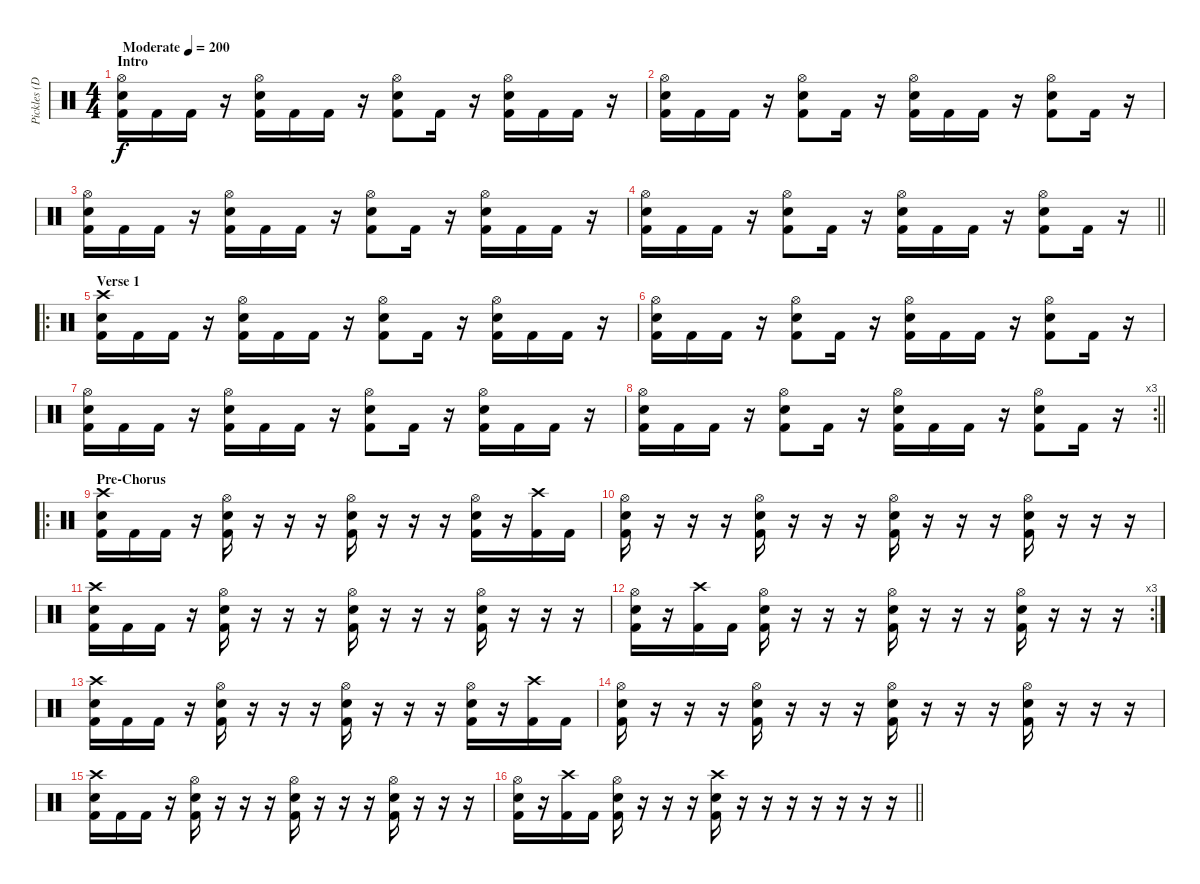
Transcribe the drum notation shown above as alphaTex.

\track ("Pickles (Drums)" "Pickles (D") {instrument percussion}
\staff {score}
\articulation defaults
\ts (4 4)
\section ("" "Intro")
\tempo (200 "Moderate")
\clef neutral
\ks c
("Hi-Hat (open)" "Electric Snare (hit)" "Kick (hit) 2").16{dy f} "Kick (hit) 2".16 "Kick (hit) 2".16 r.16 ("Hi-Hat (open)" "Electric Snare (hit)" "Kick (hit) 2").16 "Kick (hit) 2".16 "Kick (hit) 2".16 r.16 ("Hi-Hat (open)" "Electric Snare (hit)" "Kick (hit) 2").8 "Kick (hit) 2".16 r.16 ("Hi-Hat (open)" "Electric Snare (hit)" "Kick (hit) 2").16 "Kick (hit) 2".16 "Kick (hit) 2".16 r.16 |
("Hi-Hat (open)" "Electric Snare (hit)" "Kick (hit) 2").16 "Kick (hit) 2".16 "Kick (hit) 2".16 r.16 ("Hi-Hat (open)" "Electric Snare (hit)" "Kick (hit) 2").8 "Kick (hit) 2".16 r.16 ("Hi-Hat (open)" "Electric Snare (hit)" "Kick (hit) 2").16 "Kick (hit) 2".16 "Kick (hit) 2".16 r.16 ("Hi-Hat (open)" "Electric Snare (hit)" "Kick (hit) 2").8 "Kick (hit) 2".16 r.16 |
("Hi-Hat (open)" "Electric Snare (hit)" "Kick (hit) 2").16 "Kick (hit) 2".16 "Kick (hit) 2".16 r.16 ("Hi-Hat (open)" "Electric Snare (hit)" "Kick (hit) 2").16 "Kick (hit) 2".16 "Kick (hit) 2".16 r.16 ("Hi-Hat (open)" "Electric Snare (hit)" "Kick (hit) 2").8 "Kick (hit) 2".16 r.16 ("Hi-Hat (open)" "Electric Snare (hit)" "Kick (hit) 2").16 "Kick (hit) 2".16 "Kick (hit) 2".16 r.16 |
\barLineRight lightlight
("Hi-Hat (open)" "Electric Snare (hit)" "Kick (hit) 2").16 "Kick (hit) 2".16 "Kick (hit) 2".16 r.16 ("Hi-Hat (open)" "Electric Snare (hit)" "Kick (hit) 2").8 "Kick (hit) 2".16 r.16 ("Hi-Hat (open)" "Electric Snare (hit)" "Kick (hit) 2").16 "Kick (hit) 2".16 "Kick (hit) 2".16 r.16 ("Hi-Hat (open)" "Electric Snare (hit)" "Kick (hit) 2").8 "Kick (hit) 2".16 r.16 |
\ro
\section ("" "Verse 1")
("Crash high (hit)" "Electric Snare (hit)" "Kick (hit) 2").16 "Kick (hit) 2".16 "Kick (hit) 2".16 r.16 ("Hi-Hat (open)" "Electric Snare (hit)" "Kick (hit) 2").16 "Kick (hit) 2".16 "Kick (hit) 2".16 r.16 ("Hi-Hat (open)" "Electric Snare (hit)" "Kick (hit) 2").8 "Kick (hit) 2".16 r.16 ("Hi-Hat (open)" "Electric Snare (hit)" "Kick (hit) 2").16 "Kick (hit) 2".16 "Kick (hit) 2".16 r.16 |
("Hi-Hat (open)" "Electric Snare (hit)" "Kick (hit) 2").16 "Kick (hit) 2".16 "Kick (hit) 2".16 r.16 ("Hi-Hat (open)" "Electric Snare (hit)" "Kick (hit) 2").8 "Kick (hit) 2".16 r.16 ("Hi-Hat (open)" "Electric Snare (hit)" "Kick (hit) 2").16 "Kick (hit) 2".16 "Kick (hit) 2".16 r.16 ("Hi-Hat (open)" "Electric Snare (hit)" "Kick (hit) 2").8 "Kick (hit) 2".16 r.16 |
("Hi-Hat (open)" "Electric Snare (hit)" "Kick (hit) 2").16 "Kick (hit) 2".16 "Kick (hit) 2".16 r.16 ("Hi-Hat (open)" "Electric Snare (hit)" "Kick (hit) 2").16 "Kick (hit) 2".16 "Kick (hit) 2".16 r.16 ("Hi-Hat (open)" "Electric Snare (hit)" "Kick (hit) 2").8 "Kick (hit) 2".16 r.16 ("Hi-Hat (open)" "Electric Snare (hit)" "Kick (hit) 2").16 "Kick (hit) 2".16 "Kick (hit) 2".16 r.16 |
\rc 3
\barLineRight lightlight
("Hi-Hat (open)" "Electric Snare (hit)" "Kick (hit) 2").16 "Kick (hit) 2".16 "Kick (hit) 2".16 r.16 ("Hi-Hat (open)" "Electric Snare (hit)" "Kick (hit) 2").8 "Kick (hit) 2".16 r.16 ("Hi-Hat (open)" "Electric Snare (hit)" "Kick (hit) 2").16 "Kick (hit) 2".16 "Kick (hit) 2".16 r.16 ("Hi-Hat (open)" "Electric Snare (hit)" "Kick (hit) 2").8 "Kick (hit) 2".16 r.16 |
\ro
\section ("" "Pre-Chorus")
("Crash high (hit)" "Electric Snare (hit)" "Kick (hit) 2").16 "Kick (hit) 2".16 "Kick (hit) 2".16 r.16 ("Hi-Hat (open)" "Electric Snare (hit)" "Kick (hit) 2").16 r.16 r.16 r.16 ("Hi-Hat (open)" "Electric Snare (hit)" "Kick (hit) 2").16 r.16 r.16 r.16 ("Hi-Hat (open)" "Electric Snare (hit)" "Kick (hit) 2").16 r.16 ("Crash high (hit)" "Kick (hit) 2").16 "Kick (hit) 2".16 |
("Hi-Hat (open)" "Electric Snare (hit)" "Kick (hit) 2").16 r.16 r.16 r.16 ("Hi-Hat (open)" "Electric Snare (hit)" "Kick (hit) 2").16 r.16 r.16 r.16 ("Hi-Hat (open)" "Electric Snare (hit)" "Kick (hit) 2").16 r.16 r.16 r.16 ("Hi-Hat (open)" "Electric Snare (hit)" "Kick (hit) 2").16 r.16 r.16 r.16 |
("Crash high (hit)" "Electric Snare (hit)" "Kick (hit) 2").16 "Kick (hit) 2".16 "Kick (hit) 2".16 r.16 ("Hi-Hat (open)" "Electric Snare (hit)" "Kick (hit) 2").16 r.16 r.16 r.16 ("Hi-Hat (open)" "Electric Snare (hit)" "Kick (hit) 2").16 r.16 r.16 r.16 ("Hi-Hat (open)" "Electric Snare (hit)" "Kick (hit) 2").16 r.16 r.16 r.16 |
\rc 3
("Hi-Hat (open)" "Electric Snare (hit)" "Kick (hit) 2").16 r.16 ("Crash high (hit)" "Kick (hit) 2").16 "Kick (hit) 2".16 ("Hi-Hat (open)" "Electric Snare (hit)" "Kick (hit) 2").16 r.16 r.16 r.16 ("Hi-Hat (open)" "Electric Snare (hit)" "Kick (hit) 2").16 r.16 r.16 r.16 ("Hi-Hat (open)" "Electric Snare (hit)" "Kick (hit) 2").16 r.16 r.16 r.16 |
("Crash high (hit)" "Electric Snare (hit)" "Kick (hit) 2").16 "Kick (hit) 2".16 "Kick (hit) 2".16 r.16 ("Hi-Hat (open)" "Electric Snare (hit)" "Kick (hit) 2").16 r.16 r.16 r.16 ("Hi-Hat (open)" "Electric Snare (hit)" "Kick (hit) 2").16 r.16 r.16 r.16 ("Hi-Hat (open)" "Electric Snare (hit)" "Kick (hit) 2").16 r.16 ("Crash high (hit)" "Kick (hit) 2").16 "Kick (hit) 2".16 |
("Hi-Hat (open)" "Electric Snare (hit)" "Kick (hit) 2").16 r.16 r.16 r.16 ("Hi-Hat (open)" "Electric Snare (hit)" "Kick (hit) 2").16 r.16 r.16 r.16 ("Hi-Hat (open)" "Electric Snare (hit)" "Kick (hit) 2").16 r.16 r.16 r.16 ("Hi-Hat (open)" "Electric Snare (hit)" "Kick (hit) 2").16 r.16 r.16 r.16 |
("Crash high (hit)" "Electric Snare (hit)" "Kick (hit) 2").16 "Kick (hit) 2".16 "Kick (hit) 2".16 r.16 ("Hi-Hat (open)" "Electric Snare (hit)" "Kick (hit) 2").16 r.16 r.16 r.16 ("Hi-Hat (open)" "Electric Snare (hit)" "Kick (hit) 2").16 r.16 r.16 r.16 ("Hi-Hat (open)" "Electric Snare (hit)" "Kick (hit) 2").16 r.16 r.16 r.16 |
\barLineRight lightlight
("Hi-Hat (open)" "Electric Snare (hit)" "Kick (hit) 2").16 r.16 ("Crash high (hit)" "Kick (hit) 2").16 "Kick (hit) 2".16 ("Hi-Hat (open)" "Electric Snare (hit)" "Kick (hit) 2").16 r.16 r.16 r.16 ("Crash high (hit)" "Electric Snare (hit)" "Kick (hit) 2").16 r.16 r.16 r.16 r.16 r.16 r.16 r.16
